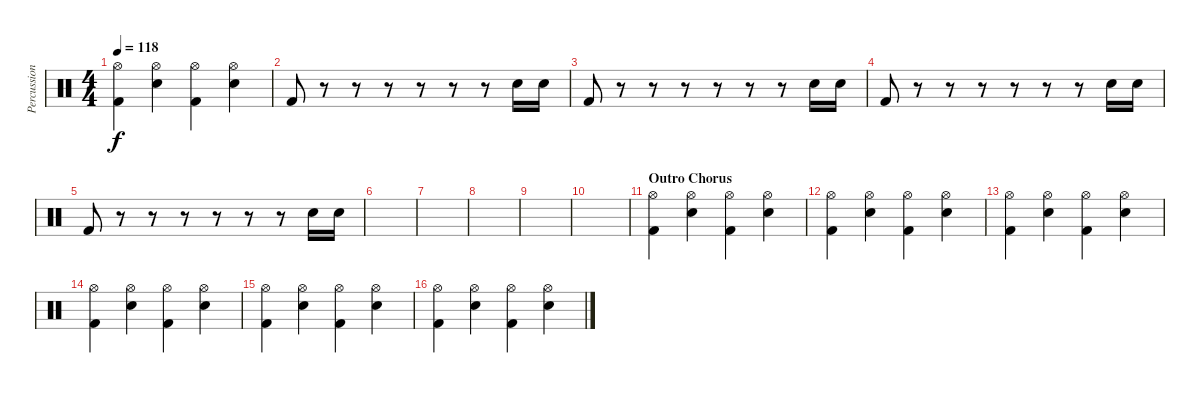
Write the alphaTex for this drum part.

\track ("Percussion" "Percussion") {instrument percussion}
\staff {score}
\articulation defaults
\ts (4 4)
\tempo 118
\clef neutral
\ks c
("Hi-Hat (open)" "Kick (hit) 2").4{dy f} ("Hi-Hat (open)" "Snare (hit) 2").4 ("Hi-Hat (open)" "Kick (hit) 2").4 ("Hi-Hat (open)" "Snare (hit) 2").4 |
"Kick (hit) 2".8 r.8 r.8 r.8 r.8 r.8 r.8 "Snare (hit) 2".16 "Snare (hit) 2".16 |
"Kick (hit) 2".8 r.8 r.8 r.8 r.8 r.8 r.8 "Snare (hit) 2".16 "Snare (hit) 2".16 |
"Kick (hit) 2".8 r.8 r.8 r.8 r.8 r.8 r.8 "Snare (hit) 2".16 "Snare (hit) 2".16 |
"Kick (hit) 2".8 r.8 r.8 r.8 r.8 r.8 r.8 "Snare (hit) 2".16 "Snare (hit) 2".16 |
|
|
|
|
|
\section ("" "Outro Chorus")
("Hi-Hat (open)" "Kick (hit) 2").4 ("Hi-Hat (open)" "Snare (hit) 2").4 ("Hi-Hat (open)" "Kick (hit) 2").4 ("Hi-Hat (open)" "Snare (hit) 2").4 |
("Hi-Hat (open)" "Kick (hit) 2").4 ("Hi-Hat (open)" "Snare (hit) 2").4 ("Hi-Hat (open)" "Kick (hit) 2").4 ("Hi-Hat (open)" "Snare (hit) 2").4 |
("Hi-Hat (open)" "Kick (hit) 2").4 ("Hi-Hat (open)" "Snare (hit) 2").4 ("Hi-Hat (open)" "Kick (hit) 2").4 ("Hi-Hat (open)" "Snare (hit) 2").4 |
("Hi-Hat (open)" "Kick (hit) 2").4 ("Hi-Hat (open)" "Snare (hit) 2").4 ("Hi-Hat (open)" "Kick (hit) 2").4 ("Hi-Hat (open)" "Snare (hit) 2").4 |
("Hi-Hat (open)" "Kick (hit) 2").4 ("Hi-Hat (open)" "Snare (hit) 2").4 ("Hi-Hat (open)" "Kick (hit) 2").4 ("Hi-Hat (open)" "Snare (hit) 2").4 |
("Hi-Hat (open)" "Kick (hit) 2").4 ("Hi-Hat (open)" "Snare (hit) 2").4 ("Hi-Hat (open)" "Kick (hit) 2").4 ("Hi-Hat (open)" "Snare (hit) 2").4
